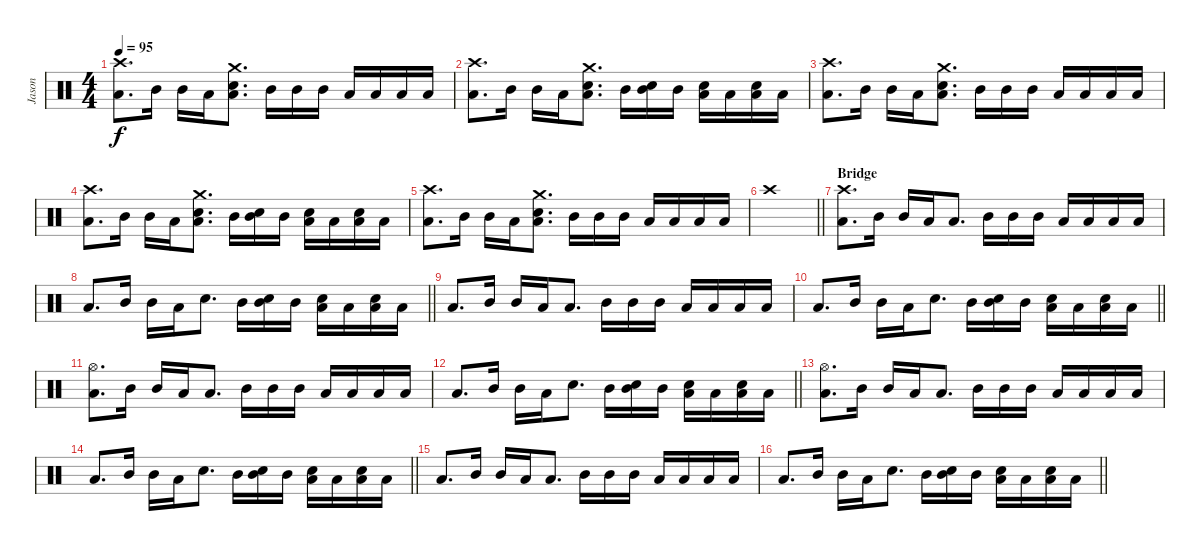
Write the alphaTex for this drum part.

\track ("Jason" "Jason") {instrument percussion}
\staff {score}
\articulation defaults
\ts (4 4)
\tempo 95
\clef neutral
\ks c
("Crash high (hit)" "Low Floor Tom (hit)").8{d dy f} "Mid Tom (hit)".16 "Mid Tom (hit)".16 "Low Tom (hit)".16 ("Crash medium (hit)" "Electric Snare (hit)" "Low Floor Tom (hit)").8{d} "Mid Tom (hit)".16 "Mid Tom (hit)".16 "Mid Tom (hit)".16 "Low Tom (hit)".16 "Low Tom (hit)".16 "Low Tom (hit)".16 "Low Tom (hit)".16 |
("Crash high (hit)" "Low Floor Tom (hit)").8{d} "Mid Tom (hit)".16 "Mid Tom (hit)".16 "Low Tom (hit)".16 ("Crash medium (hit)" "Electric Snare (hit)" "Low Floor Tom (hit)").8{d} "Mid Tom (hit)".16 ("Mid Tom (hit)" "Electric Snare (hit)").16 "Mid Tom (hit)".16 ("Low Tom (hit)" "Electric Snare (hit)").16 "Low Tom (hit)".16 ("Low Tom (hit)" "Electric Snare (hit)").16 "Low Tom (hit)".16 |
("Crash high (hit)" "Low Floor Tom (hit)").8{d} "Mid Tom (hit)".16 "Mid Tom (hit)".16 "Low Tom (hit)".16 ("Crash medium (hit)" "Electric Snare (hit)" "Low Floor Tom (hit)").8{d} "Mid Tom (hit)".16 "Mid Tom (hit)".16 "Mid Tom (hit)".16 "Low Tom (hit)".16 "Low Tom (hit)".16 "Low Tom (hit)".16 "Low Tom (hit)".16 |
("Crash high (hit)" "Low Floor Tom (hit)").8{d} "Mid Tom (hit)".16 "Mid Tom (hit)".16 "Low Tom (hit)".16 ("Crash medium (hit)" "Electric Snare (hit)" "Low Floor Tom (hit)").8{d} "Mid Tom (hit)".16 ("Mid Tom (hit)" "Electric Snare (hit)").16 "Mid Tom (hit)".16 ("Low Tom (hit)" "Electric Snare (hit)").16 "Low Tom (hit)".16 ("Low Tom (hit)" "Electric Snare (hit)").16 "Low Tom (hit)".16 |
("Crash high (hit)" "Low Floor Tom (hit)").8{d} "Mid Tom (hit)".16 "Mid Tom (hit)".16 "Low Tom (hit)".16 ("Crash medium (hit)" "Electric Snare (hit)" "Low Floor Tom (hit)").8{d} "Mid Tom (hit)".16 "Mid Tom (hit)".16 "Mid Tom (hit)".16 "Low Tom (hit)".16 "Low Tom (hit)".16 "Low Tom (hit)".16 "Low Tom (hit)".16 |
\barLineRight lightlight "Crash high (hit)".1
|
\section ("" "Bridge")
("Crash high (hit)" "Low Floor Tom (hit)").8{d} "Mid Tom (hit)".16 "Mid Tom (hit)".16 "Low Tom (hit)".16 "Low Floor Tom (hit)".8{d} "Mid Tom (hit)".16 "Mid Tom (hit)".16 "Mid Tom (hit)".16 "Low Tom (hit)".16 "Low Tom (hit)".16 "Low Tom (hit)".16 "Low Tom (hit)".16 |
\barLineRight lightlight "Low Floor Tom (hit)".8{d} "Mid Tom (hit)".16 "Mid Tom (hit)".16 "Low Tom (hit)".16 "Electric Snare (hit)".8{d} "Mid Tom (hit)".16
("Mid Tom (hit)" "Electric Snare (hit)").16 "Mid Tom (hit)".16 ("Low Tom (hit)" "Electric Snare (hit)").16 "Low Tom (hit)".16 ("Low Tom (hit)" "Electric Snare (hit)").16 "Low Tom (hit)".16 |
"Low Floor Tom (hit)".8{d} "Mid Tom (hit)".16 "Mid Tom (hit)".16 "Low Tom (hit)".16 "Low Floor Tom (hit)".8{d} "Mid Tom (hit)".16 "Mid Tom (hit)".16 "Mid Tom (hit)".16 "Low Tom (hit)".16 "Low Tom (hit)".16 "Low Tom (hit)".16 "Low Tom (hit)".16 |
\barLineRight lightlight "Low Floor Tom (hit)".8{d} "Mid Tom (hit)".16 "Mid Tom (hit)".16 "Low Tom (hit)".16 "Electric Snare (hit)".8{d} "Mid Tom (hit)".16
("Mid Tom (hit)" "Electric Snare (hit)").16 "Mid Tom (hit)".16 ("Low Tom (hit)" "Electric Snare (hit)").16 "Low Tom (hit)".16 ("Low Tom (hit)" "Electric Snare (hit)").16 "Low Tom (hit)".16 |
("Hi-Hat (open)" "Low Floor Tom (hit)").8{d} "Mid Tom (hit)".16 "Mid Tom (hit)".16 "Low Tom (hit)".16 "Low Floor Tom (hit)".8{d} "Mid Tom (hit)".16 "Mid Tom (hit)".16 "Mid Tom (hit)".16 "Low Tom (hit)".16 "Low Tom (hit)".16 "Low Tom (hit)".16 "Low Tom (hit)".16 |
\barLineRight lightlight "Low Floor Tom (hit)".8{d} "Mid Tom (hit)".16 "Mid Tom (hit)".16 "Low Tom (hit)".16 "Electric Snare (hit)".8{d} "Mid Tom (hit)".16
("Mid Tom (hit)" "Electric Snare (hit)").16 "Mid Tom (hit)".16 ("Low Tom (hit)" "Electric Snare (hit)").16 "Low Tom (hit)".16 ("Low Tom (hit)" "Electric Snare (hit)").16 "Low Tom (hit)".16 |
("Hi-Hat (open)" "Low Floor Tom (hit)").8{d} "Mid Tom (hit)".16 "Mid Tom (hit)".16 "Low Tom (hit)".16 "Low Floor Tom (hit)".8{d} "Mid Tom (hit)".16 "Mid Tom (hit)".16 "Mid Tom (hit)".16 "Low Tom (hit)".16 "Low Tom (hit)".16 "Low Tom (hit)".16 "Low Tom (hit)".16 |
\barLineRight lightlight "Low Floor Tom (hit)".8{d} "Mid Tom (hit)".16 "Mid Tom (hit)".16 "Low Tom (hit)".16 "Electric Snare (hit)".8{d} "Mid Tom (hit)".16
("Mid Tom (hit)" "Electric Snare (hit)").16 "Mid Tom (hit)".16 ("Low Tom (hit)" "Electric Snare (hit)").16 "Low Tom (hit)".16 ("Low Tom (hit)" "Electric Snare (hit)").16 "Low Tom (hit)".16 |
"Low Floor Tom (hit)".8{d} "Mid Tom (hit)".16 "Mid Tom (hit)".16 "Low Tom (hit)".16 "Low Floor Tom (hit)".8{d} "Mid Tom (hit)".16 "Mid Tom (hit)".16 "Mid Tom (hit)".16 "Low Tom (hit)".16 "Low Tom (hit)".16 "Low Tom (hit)".16 "Low Tom (hit)".16 |
\barLineRight lightlight "Low Floor Tom (hit)".8{d} "Mid Tom (hit)".16 "Mid Tom (hit)".16 "Low Tom (hit)".16 "Electric Snare (hit)".8{d} "Mid Tom (hit)".16
("Mid Tom (hit)" "Electric Snare (hit)").16 "Mid Tom (hit)".16 ("Low Tom (hit)" "Electric Snare (hit)").16 "Low Tom (hit)".16 ("Low Tom (hit)" "Electric Snare (hit)").16 "Low Tom (hit)".16
